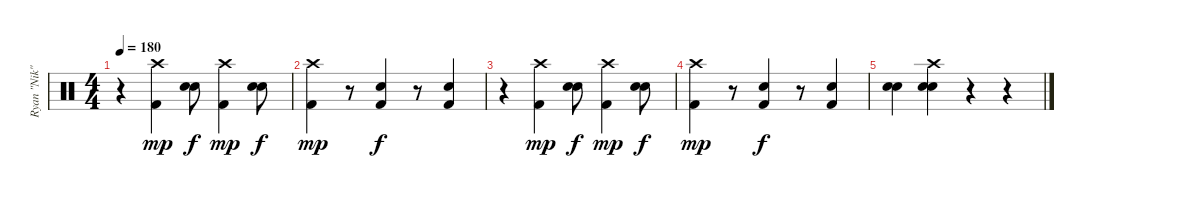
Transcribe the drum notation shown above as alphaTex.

\track ("Ryan \"Nik\"" "Ryan \"Nik\"") {instrument percussion}
\staff {score}
\articulation defaults
\ts (4 4)
\tempo 180
\clef neutral
\ks c
r.4{dy f} ("Crash high (hit)" "Kick (hit) 2").4{dy mp} ("Electric Snare (hit)" "Electric Snare (hit)").8{dy f} ("Crash high (hit)" "Kick (hit) 2").4{dy mp} ("Electric Snare (hit)" "Electric Snare (hit)").8{dy f} |
("Crash high (hit)" "Kick (hit) 2").4{dy mp} r.8 ("Electric Snare (hit)" "Kick (hit) 2").4{dy f} r.8 ("Electric Snare (hit)" "Kick (hit) 2").4 |
r.4 ("Crash high (hit)" "Kick (hit) 2").4{dy mp} ("Electric Snare (hit)" "Electric Snare (hit)").8{dy f} ("Crash high (hit)" "Kick (hit) 2").4{dy mp} ("Electric Snare (hit)" "Electric Snare (hit)").8{dy f} |
("Crash high (hit)" "Kick (hit) 2").4{dy mp} r.8 ("Electric Snare (hit)" "Kick (hit) 2").4{dy f} r.8 ("Electric Snare (hit)" "Kick (hit) 2").4 |
("Electric Snare (hit)" "Electric Snare (hit)").4 ("Crash high (hit)" "Electric Snare (hit)" "Electric Snare (hit)").4 r.4 r.4
